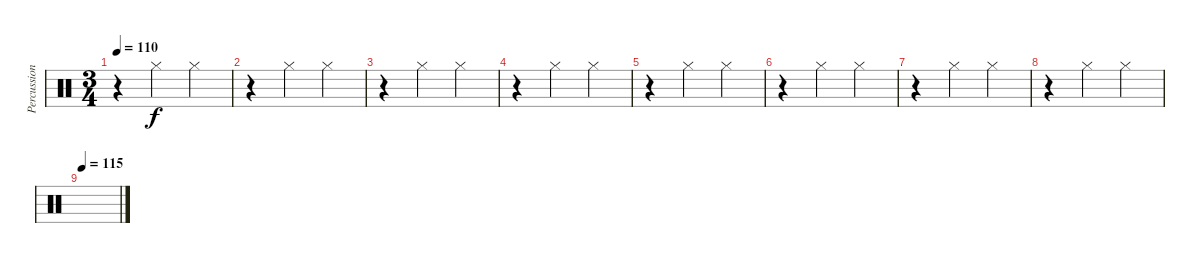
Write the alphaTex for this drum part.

\track ("Percussion" "Percussion") {instrument percussion}
\staff {score}
\articulation defaults
\ts (3 4)
\tempo 110
\clef neutral
\ks c
r.4{dy f} "Hi-Hat (closed)".4 "Hi-Hat (closed)".4 |
r.4 "Hi-Hat (closed)".4 "Hi-Hat (closed)".4 |
r.4 "Hi-Hat (closed)".4 "Hi-Hat (closed)".4 |
r.4 "Hi-Hat (closed)".4 "Hi-Hat (closed)".4 |
r.4 "Hi-Hat (closed)".4 "Hi-Hat (closed)".4 |
r.4 "Hi-Hat (closed)".4 "Hi-Hat (closed)".4 |
r.4 "Hi-Hat (closed)".4 "Hi-Hat (closed)".4 |
r.4 "Hi-Hat (closed)".4 "Hi-Hat (closed)".4 |
\tempo 115
